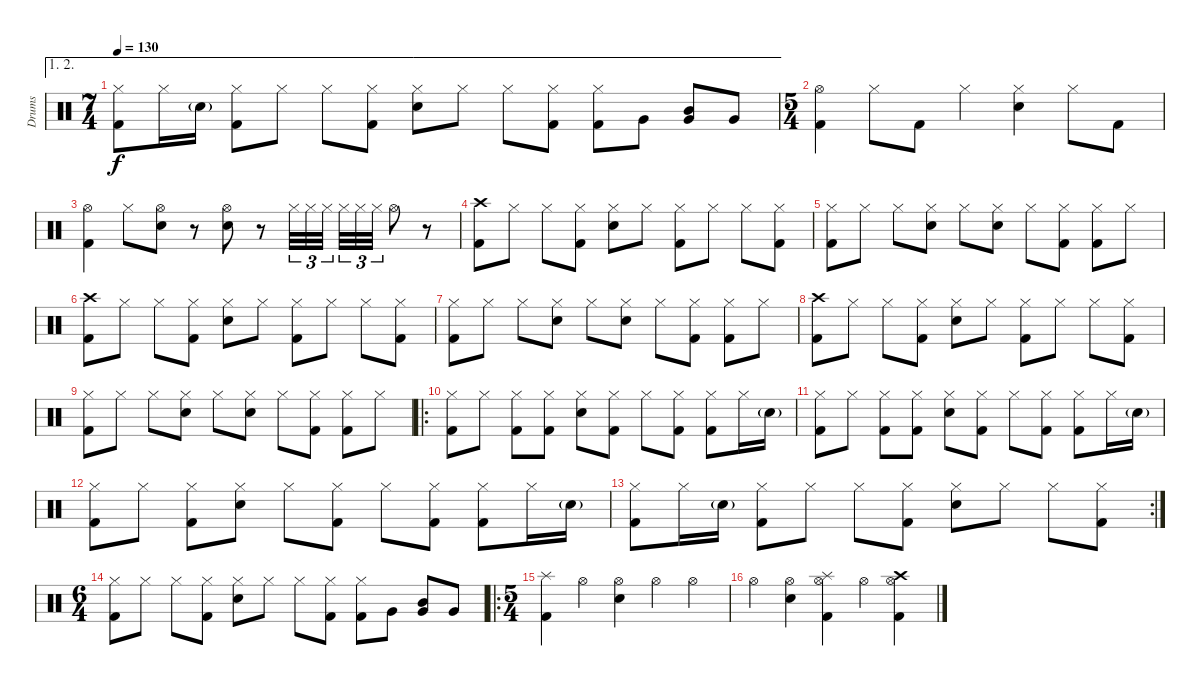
\track ("Drums" "Drums") {instrument percussion}
\staff {score}
\articulation defaults
\ae (1 2)
\ts (7 4)
\tempo 130
\clef neutral
\ks c
("Hi-Hat (closed)" "Kick (hit) 2").8{dy f} "Hi-Hat (closed)".16 "Snare (hit) 2"{g}.16 ("Hi-Hat (closed)" "Kick (hit) 2").8 "Hi-Hat (closed)".8 "Hi-Hat (closed)".8 ("Hi-Hat (closed)" "Kick (hit) 2").8 ("Hi-Hat (closed)" "Snare (hit) 2").8 "Hi-Hat (closed)".8 "Hi-Hat (closed)".8 ("Hi-Hat (closed)" "Kick (hit) 2").8 ("Hi-Hat (closed)" "Kick (hit) 2").8 "Very Low Tom (hit)".8 ("Mid Tom (hit)" "Very Low Tom (hit)").8 "Very Low Tom (hit)".8 |
\ts (5 4)
("Hi-Hat (open)" "Kick (hit) 2").4 "Hi-Hat (closed)".8 "Kick (hit) 2".8 "Hi-Hat (closed)".4 ("Hi-Hat (closed)" "Snare (hit) 2").4 "Hi-Hat (closed)".8 "Kick (hit) 2".8 |
("Hi-Hat (open)" "Kick (hit) 2").4 "Hi-Hat (closed)".8 ("Hi-Hat (open)" "Snare (hit) 2").8 r.8 ("Hi-Hat (open)" "Snare (hit) 2").8 r.8 "Hi-Hat (closed)".32{tu (3 2)} "Hi-Hat (closed)".32{tu (3 2)} "Hi-Hat (closed)".32{tu (3 2)} "Hi-Hat (closed)".32{tu (3 2)} "Hi-Hat (closed)".32{tu (3 2)} "Hi-Hat (closed)".32{tu (3 2)} "Hi-Hat (open)".8 r.8 |
("Crash high (hit)" "Kick (hit) 2").8 "Hi-Hat (closed)".8 "Hi-Hat (closed)".8 ("Hi-Hat (closed)" "Kick (hit) 2").8 ("Hi-Hat (closed)" "Snare (hit) 2").8 "Hi-Hat (closed)".8 ("Hi-Hat (closed)" "Kick (hit) 2").8 "Hi-Hat (closed)".8 "Hi-Hat (closed)".8 ("Hi-Hat (closed)" "Kick (hit) 2").8 |
("Hi-Hat (closed)" "Kick (hit) 2").8 "Hi-Hat (closed)".8 "Hi-Hat (closed)".8 ("Hi-Hat (closed)" "Snare (hit) 2").8 "Hi-Hat (closed)".8 ("Hi-Hat (closed)" "Snare (hit) 2").8 "Hi-Hat (closed)".8 ("Hi-Hat (closed)" "Kick (hit) 2").8 ("Hi-Hat (closed)" "Kick (hit) 2").8 "Hi-Hat (closed)".8 |
("Crash high (hit)" "Kick (hit) 2").8 "Hi-Hat (closed)".8 "Hi-Hat (closed)".8 ("Hi-Hat (closed)" "Kick (hit) 2").8 ("Hi-Hat (closed)" "Snare (hit) 2").8 "Hi-Hat (closed)".8 ("Hi-Hat (closed)" "Kick (hit) 2").8 "Hi-Hat (closed)".8 "Hi-Hat (closed)".8 ("Hi-Hat (closed)" "Kick (hit) 2").8 |
("Hi-Hat (closed)" "Kick (hit) 2").8 "Hi-Hat (closed)".8 "Hi-Hat (closed)".8 ("Hi-Hat (closed)" "Snare (hit) 2").8 "Hi-Hat (closed)".8 ("Hi-Hat (closed)" "Snare (hit) 2").8 "Hi-Hat (closed)".8 ("Hi-Hat (closed)" "Kick (hit) 2").8 ("Hi-Hat (closed)" "Kick (hit) 2").8 "Hi-Hat (closed)".8 |
("Crash high (hit)" "Kick (hit) 2").8 "Hi-Hat (closed)".8 "Hi-Hat (closed)".8 ("Hi-Hat (closed)" "Kick (hit) 2").8 ("Hi-Hat (closed)" "Snare (hit) 2").8 "Hi-Hat (closed)".8 ("Hi-Hat (closed)" "Kick (hit) 2").8 "Hi-Hat (closed)".8 "Hi-Hat (closed)".8 ("Hi-Hat (closed)" "Kick (hit) 2").8 |
("Hi-Hat (closed)" "Kick (hit) 2").8 "Hi-Hat (closed)".8 "Hi-Hat (closed)".8 ("Hi-Hat (closed)" "Snare (hit) 2").8 "Hi-Hat (closed)".8 ("Hi-Hat (closed)" "Snare (hit) 2").8 "Hi-Hat (closed)".8 ("Hi-Hat (closed)" "Kick (hit) 2").8 ("Hi-Hat (closed)" "Kick (hit) 2").8 "Hi-Hat (closed)".8 |
\ro
("Hi-Hat (closed)" "Kick (hit) 2").8 "Hi-Hat (closed)".8 ("Hi-Hat (closed)" "Kick (hit) 2").8 ("Hi-Hat (closed)" "Kick (hit) 2").8 ("Hi-Hat (closed)" "Snare (hit) 2").8 ("Hi-Hat (closed)" "Kick (hit) 2").8 "Hi-Hat (closed)".8 ("Hi-Hat (closed)" "Kick (hit) 2").8 ("Hi-Hat (closed)" "Kick (hit) 2").8 "Hi-Hat (closed)".16 "Snare (hit) 2"{g}.16 |
("Hi-Hat (closed)" "Kick (hit) 2").8 "Hi-Hat (closed)".8 ("Hi-Hat (closed)" "Kick (hit) 2").8 ("Hi-Hat (closed)" "Kick (hit) 2").8 ("Hi-Hat (closed)" "Snare (hit) 2").8 ("Hi-Hat (closed)" "Kick (hit) 2").8 "Hi-Hat (closed)".8 ("Hi-Hat (closed)" "Kick (hit) 2").8 ("Hi-Hat (closed)" "Kick (hit) 2").8 "Hi-Hat (closed)".16 "Snare (hit) 2"{g}.16 |
("Hi-Hat (closed)" "Kick (hit) 2").8 "Hi-Hat (closed)".8 ("Hi-Hat (closed)" "Kick (hit) 2").8 ("Hi-Hat (closed)" "Snare (hit) 2").8 "Hi-Hat (closed)".8 ("Hi-Hat (closed)" "Kick (hit) 2").8 "Hi-Hat (closed)".8 ("Hi-Hat (closed)" "Kick (hit) 2").8 ("Hi-Hat (closed)" "Kick (hit) 2").8 "Hi-Hat (closed)".16 "Snare (hit) 2"{g}.16 |
\rc 2
("Hi-Hat (closed)" "Kick (hit) 2").8 "Hi-Hat (closed)".16 "Snare (hit) 2"{g}.16 ("Hi-Hat (closed)" "Kick (hit) 2").8 "Hi-Hat (closed)".8 "Hi-Hat (closed)".8 ("Hi-Hat (closed)" "Kick (hit) 2").8 ("Hi-Hat (closed)" "Snare (hit) 2").8 "Hi-Hat (closed)".8 "Hi-Hat (closed)".8 ("Hi-Hat (closed)" "Kick (hit) 2").8 |
\ts (6 4)
("Hi-Hat (closed)" "Kick (hit) 2").8 "Hi-Hat (closed)".8 "Hi-Hat (closed)".8 ("Hi-Hat (closed)" "Kick (hit) 2").8 ("Hi-Hat (closed)" "Snare (hit) 2").8 "Hi-Hat (closed)".8 "Hi-Hat (closed)".8 ("Hi-Hat (closed)" "Kick (hit) 2").8 ("Hi-Hat (closed)" "Kick (hit) 2").8 "Very Low Tom (hit)".8 ("Mid Tom (hit)" "Very Low Tom (hit)").8 "Very Low Tom (hit)".8 |
\ro
\ts (5 4)
("Splash (hit)" "Kick (hit) 2").4 "Hi-Hat (open)".4 ("Hi-Hat (open)" "Snare (hit) 2").4 "Hi-Hat (open)".4 "Hi-Hat (open)".4 |
"Hi-Hat (open)".4 ("Hi-Hat (open)" "Snare (hit) 2").4 ("Splash (hit)" "Hi-Hat (open)" "Kick (hit) 2").4 "Hi-Hat (open)".4 ("Crash high (hit)" "Hi-Hat (open)" "Kick (hit) 2").4
